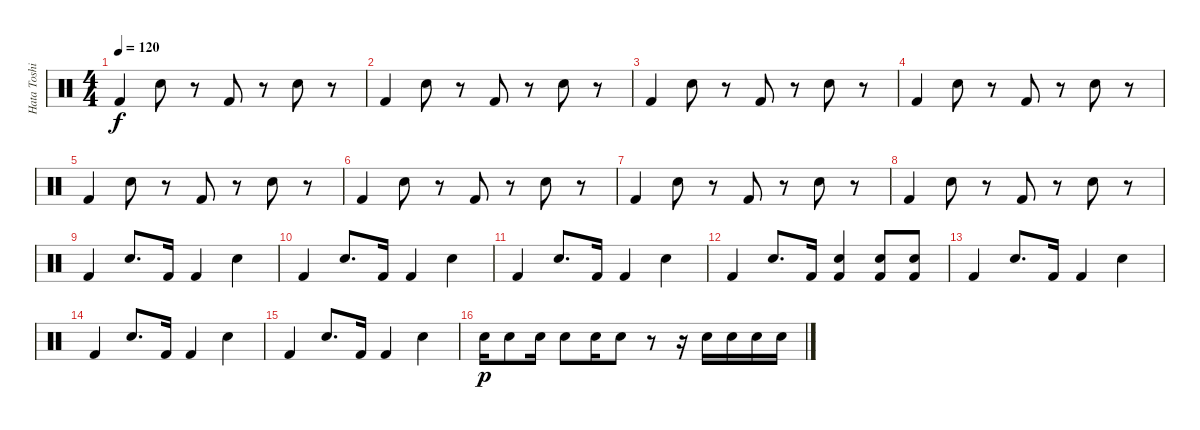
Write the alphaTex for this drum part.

\track ("Hata Toshiki" "Hata Toshi") {instrument percussion}
\staff {score}
\articulation defaults
\ts (4 4)
\tempo 120
\clef neutral
\ks c "Kick (hit) 2".4{dy f} "Electric Snare (hit)".8
r.8 "Kick (hit) 2".8 r.8 "Electric Snare (hit)".8 r.8 |
"Kick (hit) 2".4 "Electric Snare (hit)".8 r.8 "Kick (hit) 2".8 r.8 "Electric Snare (hit)".8 r.8 |
"Kick (hit) 2".4 "Electric Snare (hit)".8 r.8 "Kick (hit) 2".8 r.8 "Electric Snare (hit)".8 r.8 |
"Kick (hit) 2".4 "Electric Snare (hit)".8 r.8 "Kick (hit) 2".8 r.8 "Electric Snare (hit)".8 r.8 |
"Kick (hit) 2".4 "Electric Snare (hit)".8 r.8 "Kick (hit) 2".8 r.8 "Electric Snare (hit)".8 r.8 |
"Kick (hit) 2".4 "Electric Snare (hit)".8 r.8 "Kick (hit) 2".8 r.8 "Electric Snare (hit)".8 r.8 |
"Kick (hit) 2".4 "Electric Snare (hit)".8 r.8 "Kick (hit) 2".8 r.8 "Electric Snare (hit)".8 r.8 |
"Kick (hit) 2".4 "Electric Snare (hit)".8 r.8 "Kick (hit) 2".8 r.8 "Electric Snare (hit)".8 r.8 |
"Kick (hit) 2".4 "Electric Snare (hit)".8{d} "Kick (hit) 2".16 "Kick (hit) 2".4 "Electric Snare (hit)".4 |
"Kick (hit) 2".4 "Electric Snare (hit)".8{d} "Kick (hit) 2".16 "Kick (hit) 2".4 "Electric Snare (hit)".4 |
"Kick (hit) 2".4 "Electric Snare (hit)".8{d} "Kick (hit) 2".16 "Kick (hit) 2".4 "Electric Snare (hit)".4 |
"Kick (hit) 2".4 "Electric Snare (hit)".8{d} "Kick (hit) 2".16 ("Electric Snare (hit)" "Kick (hit) 2").4 ("Electric Snare (hit)" "Kick (hit) 2").8 ("Electric Snare (hit)" "Kick (hit) 2").8 |
"Kick (hit) 2".4 "Electric Snare (hit)".8{d} "Kick (hit) 2".16 "Kick (hit) 2".4 "Electric Snare (hit)".4 |
"Kick (hit) 2".4 "Electric Snare (hit)".8{d} "Kick (hit) 2".16 "Kick (hit) 2".4 "Electric Snare (hit)".4 |
"Kick (hit) 2".4 "Electric Snare (hit)".8{d} "Kick (hit) 2".16 "Kick (hit) 2".4 "Electric Snare (hit)".4 |
"Electric Snare (hit)".16{dy p} "Electric Snare (hit)".8 "Electric Snare (hit)".16 "Electric Snare (hit)".8 "Electric Snare (hit)".16 "Electric Snare (hit)".8 r.8 r.16 "Electric Snare (hit)".16 "Electric Snare (hit)".16 "Electric Snare (hit)".16 "Electric Snare (hit)".16
